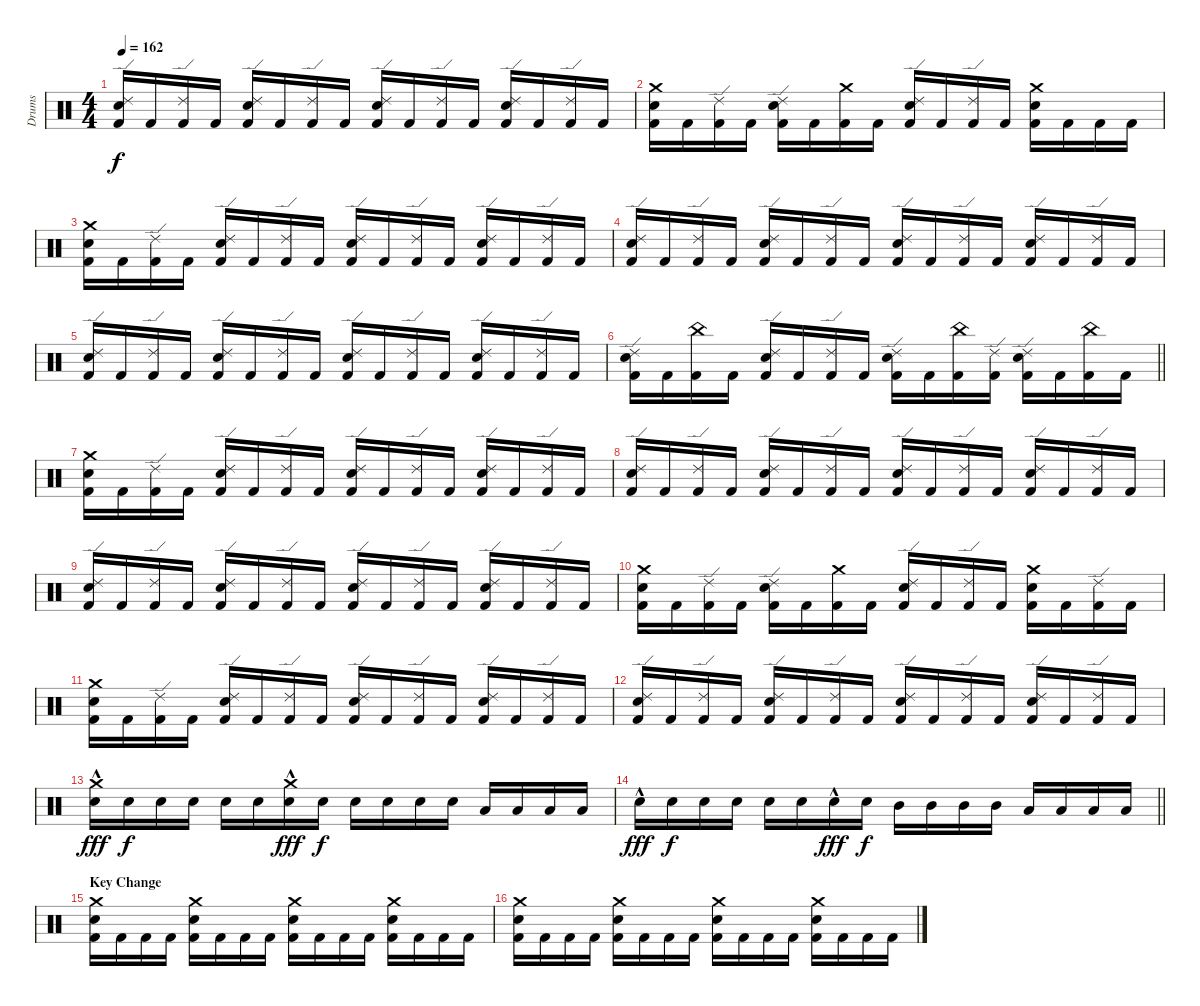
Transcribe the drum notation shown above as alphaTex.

\track ("Drums" "Drums") {instrument percussion}
\staff {score}
\articulation defaults
\ts (4 4)
\tempo 162
\clef neutral
\ks c
("Kick (hit) 2" "Snare (hit) 2" "Ride (edge) 2").16{dy f} "Kick (hit) 2".16 ("Kick (hit) 2" "Ride (edge) 2").16 "Kick (hit) 2".16 ("Kick (hit) 2" "Snare (hit) 2" "Ride (edge) 2").16 "Kick (hit) 2".16 ("Kick (hit) 2" "Ride (edge) 2").16 "Kick (hit) 2".16 ("Kick (hit) 2" "Snare (hit) 2" "Ride (edge) 2").16 "Kick (hit) 2".16 ("Kick (hit) 2" "Ride (edge) 2").16 "Kick (hit) 2".16 ("Kick (hit) 2" "Snare (hit) 2" "Ride (edge) 2").16 "Kick (hit) 2".16 ("Kick (hit) 2" "Ride (edge) 2").16 "Kick (hit) 2".16 |
("Kick (hit) 2" "Snare (hit) 2" "Crash medium (hit)").16 "Kick (hit) 2".16 ("Kick (hit) 2" "Ride (edge) 2").16 "Kick (hit) 2".16 ("Kick (hit) 2" "Snare (hit) 2" "Ride (edge) 2").16 "Kick (hit) 2".16 ("Kick (hit) 2" "Crash medium (hit)").16 "Kick (hit) 2".16 ("Kick (hit) 2" "Snare (hit) 2" "Ride (edge) 2").16 "Kick (hit) 2".16 ("Kick (hit) 2" "Ride (edge) 2").16 "Kick (hit) 2".16 ("Kick (hit) 2" "Snare (hit) 2" "Crash medium (hit)").16 "Kick (hit) 2".16 "Kick (hit) 2".16 "Kick (hit) 2".16 |
("Kick (hit) 2" "Snare (hit) 2" "Crash medium (hit)").16 "Kick (hit) 2".16 ("Kick (hit) 2" "Ride (edge) 2").16 "Kick (hit) 2".16 ("Kick (hit) 2" "Snare (hit) 2" "Ride (edge) 2").16 "Kick (hit) 2".16 ("Kick (hit) 2" "Ride (edge) 2").16 "Kick (hit) 2".16 ("Kick (hit) 2" "Snare (hit) 2" "Ride (edge) 2").16 "Kick (hit) 2".16 ("Kick (hit) 2" "Ride (edge) 2").16 "Kick (hit) 2".16 ("Kick (hit) 2" "Snare (hit) 2" "Ride (edge) 2").16 "Kick (hit) 2".16 ("Kick (hit) 2" "Ride (edge) 2").16 "Kick (hit) 2".16 |
("Kick (hit) 2" "Snare (hit) 2" "Ride (edge) 2").16 "Kick (hit) 2".16 ("Kick (hit) 2" "Ride (edge) 2").16 "Kick (hit) 2".16 ("Kick (hit) 2" "Snare (hit) 2" "Ride (edge) 2").16 "Kick (hit) 2".16 ("Kick (hit) 2" "Ride (edge) 2").16 "Kick (hit) 2".16 ("Kick (hit) 2" "Snare (hit) 2" "Ride (edge) 2").16 "Kick (hit) 2".16 ("Kick (hit) 2" "Ride (edge) 2").16 "Kick (hit) 2".16 ("Kick (hit) 2" "Snare (hit) 2" "Ride (edge) 2").16 "Kick (hit) 2".16 ("Kick (hit) 2" "Ride (edge) 2").16 "Kick (hit) 2".16 |
("Kick (hit) 2" "Snare (hit) 2" "Ride (edge) 2").16 "Kick (hit) 2".16 ("Kick (hit) 2" "Ride (edge) 2").16 "Kick (hit) 2".16 ("Kick (hit) 2" "Snare (hit) 2" "Ride (edge) 2").16 "Kick (hit) 2".16 ("Kick (hit) 2" "Ride (edge) 2").16 "Kick (hit) 2".16 ("Kick (hit) 2" "Snare (hit) 2" "Ride (edge) 2").16 "Kick (hit) 2".16 ("Kick (hit) 2" "Ride (edge) 2").16 "Kick (hit) 2".16 ("Kick (hit) 2" "Snare (hit) 2" "Ride (edge) 2").16 "Kick (hit) 2".16 ("Kick (hit) 2" "Ride (edge) 2").16 "Kick (hit) 2".16 |
\barLineRight lightlight
("Kick (hit) 2" "Snare (hit) 2" "Ride (edge) 2").16 "Kick (hit) 2".16 ("Kick (hit) 2" "China (hit)").16 "Kick (hit) 2".16 ("Kick (hit) 2" "Snare (hit) 2" "Ride (edge) 2").16 "Kick (hit) 2".16 ("Kick (hit) 2" "Ride (edge) 2").16 "Kick (hit) 2".16 ("Kick (hit) 2" "Snare (hit) 2" "Ride (edge) 2").16 "Kick (hit) 2".16 ("Kick (hit) 2" "China (hit)").16 ("Kick (hit) 2" "Ride (edge) 2").16 ("Kick (hit) 2" "Snare (hit) 2" "Ride (edge) 2").16 "Kick (hit) 2".16 ("Kick (hit) 2" "China (hit)").16 "Kick (hit) 2".16 |
\section ("" "")
("Kick (hit) 2" "Snare (hit) 2" "Crash medium (hit)").16 "Kick (hit) 2".16 ("Kick (hit) 2" "Ride (edge) 2").16 "Kick (hit) 2".16 ("Kick (hit) 2" "Snare (hit) 2" "Ride (edge) 2").16 "Kick (hit) 2".16 ("Kick (hit) 2" "Ride (edge) 2").16 "Kick (hit) 2".16 ("Kick (hit) 2" "Snare (hit) 2" "Ride (edge) 2").16 "Kick (hit) 2".16 ("Kick (hit) 2" "Ride (edge) 2").16 "Kick (hit) 2".16 ("Kick (hit) 2" "Snare (hit) 2" "Ride (edge) 2").16 "Kick (hit) 2".16 ("Kick (hit) 2" "Ride (edge) 2").16 "Kick (hit) 2".16 |
("Kick (hit) 2" "Snare (hit) 2" "Ride (edge) 2").16 "Kick (hit) 2".16 ("Kick (hit) 2" "Ride (edge) 2").16 "Kick (hit) 2".16 ("Kick (hit) 2" "Snare (hit) 2" "Ride (edge) 2").16 "Kick (hit) 2".16 ("Kick (hit) 2" "Ride (edge) 2").16 "Kick (hit) 2".16 ("Kick (hit) 2" "Snare (hit) 2" "Ride (edge) 2").16 "Kick (hit) 2".16 ("Kick (hit) 2" "Ride (edge) 2").16 "Kick (hit) 2".16 ("Kick (hit) 2" "Snare (hit) 2" "Ride (edge) 2").16 "Kick (hit) 2".16 ("Kick (hit) 2" "Ride (edge) 2").16 "Kick (hit) 2".16 |
("Kick (hit) 2" "Snare (hit) 2" "Ride (edge) 2").16 "Kick (hit) 2".16 ("Kick (hit) 2" "Ride (edge) 2").16 "Kick (hit) 2".16 ("Kick (hit) 2" "Snare (hit) 2" "Ride (edge) 2").16 "Kick (hit) 2".16 ("Kick (hit) 2" "Ride (edge) 2").16 "Kick (hit) 2".16 ("Kick (hit) 2" "Snare (hit) 2" "Ride (edge) 2").16 "Kick (hit) 2".16 ("Kick (hit) 2" "Ride (edge) 2").16 "Kick (hit) 2".16 ("Kick (hit) 2" "Snare (hit) 2" "Ride (edge) 2").16 "Kick (hit) 2".16 ("Kick (hit) 2" "Ride (edge) 2").16 "Kick (hit) 2".16 |
("Kick (hit) 2" "Snare (hit) 2" "Crash medium (hit)").16 "Kick (hit) 2".16 ("Kick (hit) 2" "Ride (edge) 2").16 "Kick (hit) 2".16 ("Kick (hit) 2" "Snare (hit) 2" "Ride (edge) 2").16 "Kick (hit) 2".16 ("Kick (hit) 2" "Crash medium (hit)").16 "Kick (hit) 2".16 ("Kick (hit) 2" "Snare (hit) 2" "Ride (edge) 2").16 "Kick (hit) 2".16 ("Kick (hit) 2" "Ride (edge) 2").16 "Kick (hit) 2".16 ("Kick (hit) 2" "Snare (hit) 2" "Crash medium (hit)").16 "Kick (hit) 2".16 ("Kick (hit) 2" "Ride (edge) 2").16 "Kick (hit) 2".16 |
("Kick (hit) 2" "Snare (hit) 2" "Crash medium (hit)").16 "Kick (hit) 2".16 ("Kick (hit) 2" "Ride (edge) 2").16 "Kick (hit) 2".16 ("Kick (hit) 2" "Snare (hit) 2" "Ride (edge) 2").16 "Kick (hit) 2".16 ("Kick (hit) 2" "Ride (edge) 2").16 "Kick (hit) 2".16 ("Kick (hit) 2" "Snare (hit) 2" "Ride (edge) 2").16 "Kick (hit) 2".16 ("Kick (hit) 2" "Ride (edge) 2").16 "Kick (hit) 2".16 ("Kick (hit) 2" "Snare (hit) 2" "Ride (edge) 2").16 "Kick (hit) 2".16 ("Kick (hit) 2" "Ride (edge) 2").16 "Kick (hit) 2".16 |
("Kick (hit) 2" "Snare (hit) 2" "Ride (edge) 2").16 "Kick (hit) 2".16 ("Kick (hit) 2" "Ride (edge) 2").16 "Kick (hit) 2".16 ("Kick (hit) 2" "Snare (hit) 2" "Ride (edge) 2").16 "Kick (hit) 2".16 ("Kick (hit) 2" "Ride (edge) 2").16 "Kick (hit) 2".16 ("Kick (hit) 2" "Snare (hit) 2" "Ride (edge) 2").16 "Kick (hit) 2".16 ("Kick (hit) 2" "Ride (edge) 2").16 "Kick (hit) 2".16 ("Kick (hit) 2" "Snare (hit) 2" "Ride (edge) 2").16 "Kick (hit) 2".16 ("Kick (hit) 2" "Ride (edge) 2").16 "Kick (hit) 2".16 |
("Snare (hit) 2"{hac} "Crash medium (hit)").16{dy fff} "Snare (hit) 2".16{dy f} "Snare (hit) 2".16 "Snare (hit) 2".16 "Snare (hit) 2".16 "Snare (hit) 2".16 ("Snare (hit) 2"{hac} "Crash medium (hit)").16{dy fff} "Snare (hit) 2".16{dy f} "Snare (hit) 2".16 "Snare (hit) 2".16 "Snare (hit) 2".16 "Snare (hit) 2".16 "Low Tom (hit)".16 "Low Tom (hit)".16 "Low Tom (hit)".16 "Low Tom (hit)".16 |
\barLineRight lightlight "Snare (hit) 2"{hac}.16{dy fff} "Snare (hit) 2".16{dy f} "Snare (hit) 2".16 "Snare (hit) 2".16 "Snare (hit) 2".16 "Snare (hit) 2".16 "Snare (hit) 2"{hac}.16{dy fff} "Snare (hit) 2".16{dy f} "Mid Tom (hit)".16 "Mid Tom (hit)".16 "Mid Tom (hit)".16 "Mid Tom (hit)".16 "Low Tom (hit)".16 "Low Tom (hit)".16 "Low Tom (hit)".16 "Low Tom (hit)".16
|
\section ("" "Key Change")
("Kick (hit) 2" "Snare (hit) 2" "Crash medium (hit)").16 "Kick (hit) 2".16 "Kick (hit) 2".16 "Kick (hit) 2".16 ("Kick (hit) 2" "Snare (hit) 2" "Crash medium (hit)").16 "Kick (hit) 2".16 "Kick (hit) 2".16 "Kick (hit) 2".16 ("Kick (hit) 2" "Snare (hit) 2" "Crash medium (hit)").16 "Kick (hit) 2".16 "Kick (hit) 2".16 "Kick (hit) 2".16 ("Kick (hit) 2" "Snare (hit) 2" "Crash medium (hit)").16 "Kick (hit) 2".16 "Kick (hit) 2".16 "Kick (hit) 2".16 |
("Kick (hit) 2" "Snare (hit) 2" "Crash medium (hit)").16 "Kick (hit) 2".16 "Kick (hit) 2".16 "Kick (hit) 2".16 ("Kick (hit) 2" "Snare (hit) 2" "Crash medium (hit)").16 "Kick (hit) 2".16 "Kick (hit) 2".16 "Kick (hit) 2".16 ("Kick (hit) 2" "Snare (hit) 2" "Crash medium (hit)").16 "Kick (hit) 2".16 "Kick (hit) 2".16 "Kick (hit) 2".16 ("Kick (hit) 2" "Snare (hit) 2" "Crash medium (hit)").16 "Kick (hit) 2".16 "Kick (hit) 2".16 "Kick (hit) 2".16
